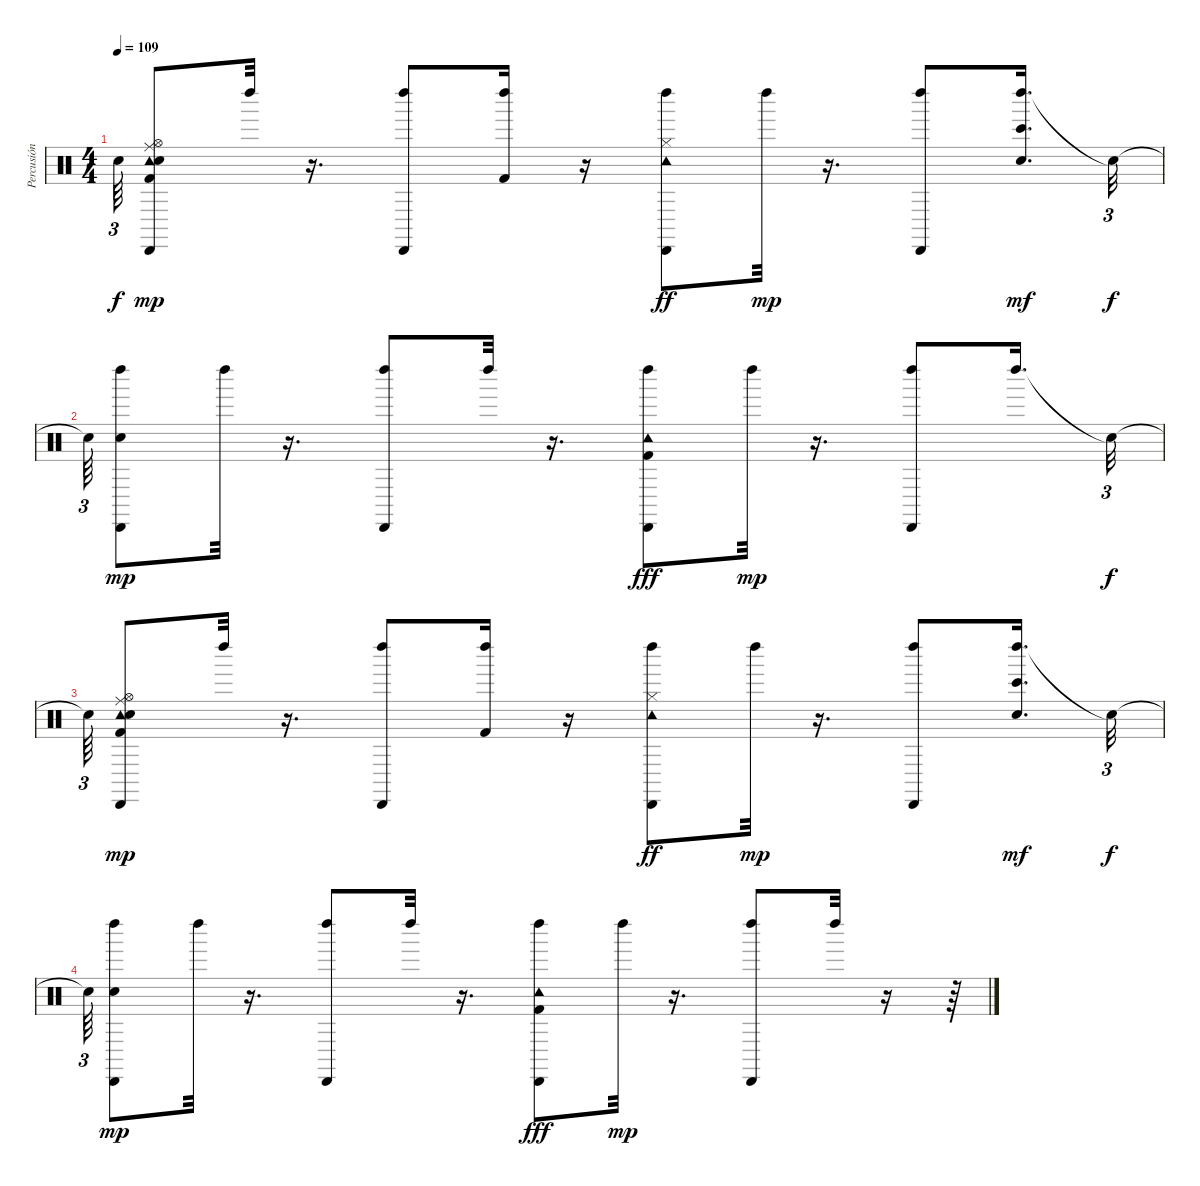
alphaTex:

\track ("Percusión" "Percusión") {instrument percussion}
\staff {score}
\articulation defaults
\ts (4 4)
\tempo 109
\clef neutral
\ks c "Snare (hit)"{t}.64{tu (3 2) dy f}
("Ride (middle)" "Kick (hit) 2" "Hi-Hat (open)" "Tambourine (hit)" "Snare (hit)" "Cabasa (hit)").8{dy mp} "Left Maraca (hit)".32 r.16{d} ("Cabasa (hit)" "Left Maraca (hit)").8 ("Kick (hit) 2" "Left Maraca (hit)").16 r.16 ("Left Maraca (hit)" "Cabasa (hit)" "Hi-Hat (closed)" "Tambourine (hit)").8{dy ff} "Left Maraca (hit)".32{dy mp} r.16{d} ("Cabasa (hit)" "Left Maraca (hit)").8 ("Left Maraca (hit)" "Snare (hit)" "Bongo High (hit)").16{d dy mf} "Snare (hit)"{t}.32{tu (3 2) dy f} |
"Snare (hit)"{t}.64{tu (3 2)} ("Left Maraca (hit)" "Snare (hit)" "Cabasa (hit)").8{dy mp} "Left Maraca (hit)".32 r.16{d} ("Left Maraca (hit)" "Cabasa (hit)").8 "Left Maraca (hit)".32 r.16{d} ("Cabasa (hit)" "Left Maraca (hit)" "Kick (hit) 2" "Tambourine (hit)").8{dy fff} "Left Maraca (hit)".32{dy mp} r.16{d} ("Cabasa (hit)" "Left Maraca (hit)").8 "Left Maraca (hit)".16{d} "Snare (hit)"{t}.32{tu (3 2) dy f} |
"Snare (hit)"{t}.64{tu (3 2)} ("Ride (middle)" "Kick (hit) 2" "Hi-Hat (open)" "Tambourine (hit)" "Snare (hit)" "Cabasa (hit)").8{dy mp} "Left Maraca (hit)".32 r.16{d} ("Cabasa (hit)" "Left Maraca (hit)").8 ("Kick (hit) 2" "Left Maraca (hit)").16 r.16 ("Left Maraca (hit)" "Cabasa (hit)" "Hi-Hat (closed)" "Tambourine (hit)").8{dy ff} "Left Maraca (hit)".32{dy mp} r.16{d} ("Cabasa (hit)" "Left Maraca (hit)").8 ("Left Maraca (hit)" "Snare (hit)" "Bongo High (hit)").16{d dy mf} "Snare (hit)"{t}.32{tu (3 2) dy f} |
"Snare (hit)"{t}.64{tu (3 2)} ("Left Maraca (hit)" "Snare (hit)" "Cabasa (hit)").8{dy mp} "Left Maraca (hit)".32 r.16{d} ("Left Maraca (hit)" "Cabasa (hit)").8 "Left Maraca (hit)".32 r.16{d} ("Cabasa (hit)" "Left Maraca (hit)" "Kick (hit) 2" "Tambourine (hit)").8{dy fff} "Left Maraca (hit)".32{dy mp} r.16{d} ("Cabasa (hit)" "Left Maraca (hit)").8 "Left Maraca (hit)".32 r.16 r.64
